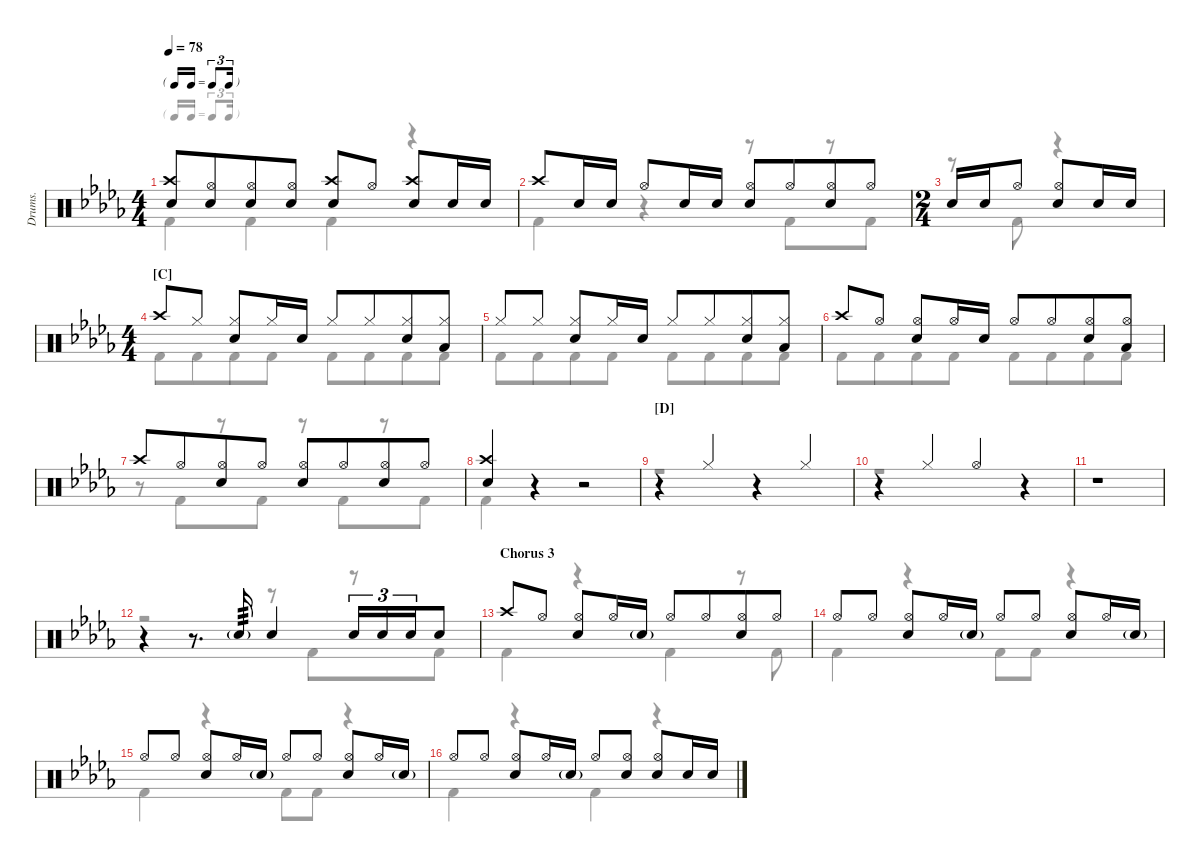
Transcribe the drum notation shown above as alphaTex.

\defaultSystemsLayout 4
\hideDynamics
\otherSystemsTrackNameOrientation horizontal
\track ("Drumkit" "Drums.") {defaultSystemsLayout 4 instrument percussion}
\staff {score}
\articulation defaults
\voice
\ts (4 4)
\tf triplet16th
\tempo 78
\clef neutral
\ks db
("Crash high (hit)"{acc forcenatural} "Snare (hit) 2"{acc forcenatural}).8{dy mf beam Up} ("Hi-Hat (open)"{acc forcenatural} "Snare (hit) 2"{acc forcenatural}).8{beam Up beam merge} ("Hi-Hat (open)"{acc forcenatural} "Snare (hit) 2"{acc forcenatural}).8{beam Up} ("Hi-Hat (open)"{acc forcenatural} "Snare (hit) 2"{acc forcenatural}).8{beam Up} ("Snare (hit) 2"{acc forcenatural} "Crash high (hit)"{acc forcenatural}).8{beam Up} "Hi-Hat (open)"{acc forcenatural}.8{beam Up} ("Snare (hit) 2"{acc forcenatural} "Crash high (hit)"{acc forcenatural}).8{beam Up} "Snare (hit) 2"{acc forcenatural}.16{beam Up} "Snare (hit) 2"{acc forcenatural}.16{beam Up} |
"Crash high (hit)"{acc forcenatural}.8{beam Up} "Snare (hit) 2"{acc forcenatural}.16{beam Up} "Snare (hit) 2"{acc forcenatural}.16{beam Up} "Hi-Hat (open)"{acc forcenatural}.8{beam Up} "Snare (hit) 2"{acc forcenatural}.16{beam Up} "Snare (hit) 2"{acc forcenatural}.16{beam Up} ("Hi-Hat (open)"{acc forcenatural} "Snare (hit) 2"{acc forcenatural}).8{beam Up} "Hi-Hat (open)"{acc forcenatural}.8{beam Up beam merge} ("Hi-Hat (open)"{acc forcenatural} "Snare (hit) 2"{acc forcenatural}).8{beam Up} "Hi-Hat (open)"{acc forcenatural}.8{beam Up} |
\ts (2 4)
"Snare (hit) 2"{acc forcenatural}.16{beam Up} "Snare (hit) 2"{acc forcenatural}.16{beam Up} "Hi-Hat (open)"{acc forcenatural}.8{beam Up} ("Hi-Hat (open)"{acc forcenatural} "Snare (hit) 2"{acc forcenatural}).8{beam Up} "Snare (hit) 2"{acc forcenatural}.16{beam Up} "Snare (hit) 2"{acc forcenatural}.16{beam Up} |
\ts (4 4)
\section ("C" "")
"Crash high (hit)"{acc forcenatural}.8{beam Up} "Hi-Hat (closed)"{acc forcenatural}.8{beam Up} ("Hi-Hat (closed)"{acc forcenatural} "Snare (hit) 2"{acc forcenatural}).8{beam Up} "Hi-Hat (closed)"{acc forcenatural}.16{beam Up} "Snare (hit) 2"{acc forcenatural}.16{beam Up} "Hi-Hat (closed)"{acc forcenatural}.8{beam Up beam merge} "Hi-Hat (closed)"{acc forcenatural}.8{beam Up beam merge} ("Hi-Hat (closed)"{acc forcenatural} "Snare (hit) 2"{acc forcenatural}).8{beam Up beam merge} ("Hi-Hat (closed)"{acc forcenatural} "Low Tom (hit)"{acc forcenatural}).8{beam Up} |
"Hi-Hat (closed)"{acc forcenatural}.8{beam Up} "Hi-Hat (closed)"{acc forcenatural}.8{beam Up} ("Hi-Hat (closed)"{acc forcenatural} "Snare (hit) 2"{acc forcenatural}).8{beam Up} "Hi-Hat (closed)"{acc forcenatural}.16{beam Up} "Snare (hit) 2"{acc forcenatural}.16{beam Up} "Hi-Hat (closed)"{acc forcenatural}.8{beam Up beam merge} "Hi-Hat (closed)"{acc forcenatural}.8{beam Up beam merge} ("Hi-Hat (closed)"{acc forcenatural} "Snare (hit) 2"{acc forcenatural}).8{beam Up beam merge} ("Hi-Hat (closed)"{acc forcenatural} "Low Tom (hit)"{acc forcenatural}).8{beam Up} |
"Crash high (hit)"{acc forcenatural}.8{beam Up} "Hi-Hat (open)"{acc forcenatural}.8{beam Up} ("Hi-Hat (open)"{acc forcenatural} "Snare (hit) 2"{acc forcenatural}).8{beam Up} "Hi-Hat (open)"{acc forcenatural}.16{beam Up} "Snare (hit) 2"{acc forcenatural}.16{beam Up} "Hi-Hat (open)"{acc forcenatural}.8{beam Up beam merge} "Hi-Hat (open)"{acc forcenatural}.8{beam Up beam merge} ("Hi-Hat (open)"{acc forcenatural} "Snare (hit) 2"{acc forcenatural}).8{beam Up beam merge} ("Hi-Hat (open)"{acc forcenatural} "Low Tom (hit)"{acc forcenatural}).8{beam Up} |
"Crash high (hit)"{acc forcenatural}.8{beam Up} "Hi-Hat (open)"{acc forcenatural}.8{beam Up beam merge} ("Hi-Hat (open)"{acc forcenatural} "Snare (hit) 2"{acc forcenatural}).8{beam Up} "Hi-Hat (open)"{acc forcenatural}.8{beam Up} ("Hi-Hat (open)"{acc forcenatural} "Snare (hit) 2"{acc forcenatural}).8{beam Up} "Hi-Hat (open)"{acc forcenatural}.8{beam Up beam merge} ("Hi-Hat (open)"{acc forcenatural} "Snare (hit) 2"{acc forcenatural}).8{beam Up} "Hi-Hat (open)"{acc forcenatural}.8{beam Up} |
("Crash high (hit)"{acc forcenatural} "Snare (hit) 2"{acc forcenatural}).4{beam Up} r.4{beam Up} r.2{beam Up} |
\section ("D" "")
r.4{beam Up} "Hi-Hat (closed)"{acc forcenatural}.4{beam Up} r.4{beam Up} "Hi-Hat (closed)"{acc forcenatural}.4{beam Up} |
r.4{beam Up} "Hi-Hat (closed)"{acc forcenatural}.4{beam Up} "Hi-Hat (open)"{acc forcenatural}.4{beam Up} r.4{beam Up} |
r.1{beam Down} |
r.4{beam Up} r.8{d beam Up} "Snare (hit) 2"{g acc forcenatural}.16{tp 3 beam Up} "Snare (hit) 2"{acc forcenatural}.4{beam Up} "Snare (hit) 2"{acc forcenatural}.16{tu (3 2) beam Up} "Snare (hit) 2"{acc forcenatural}.16{tu (3 2) beam Up} "Snare (hit) 2"{acc forcenatural}.16{tu (3 2) beam Up beam merge} "Snare (hit) 2"{acc forcenatural}.8{beam Up} |
\section ("" "Chorus 3")
"Crash high (hit)"{acc forcenatural}.8{beam Up} "Hi-Hat (open)"{acc forcenatural}.8{beam Up} ("Hi-Hat (open)"{acc forcenatural} "Snare (hit) 2"{acc forcenatural}).8{beam Up} "Hi-Hat (open)"{acc forcenatural}.16{beam Up} "Snare (hit) 2"{g acc forcenatural}.16{beam Up} "Hi-Hat (open)"{acc forcenatural}.8{beam Up beam merge} "Hi-Hat (open)"{acc forcenatural}.8{beam Up beam merge} ("Hi-Hat (open)"{acc forcenatural} "Snare (hit) 2"{acc forcenatural}).8{beam Up beam merge} "Hi-Hat (open)"{acc forcenatural}.8{beam Up} |
"Hi-Hat (open)"{acc forcenatural}.8{beam Up} "Hi-Hat (open)"{acc forcenatural}.8{beam Up} ("Hi-Hat (open)"{acc forcenatural} "Snare (hit) 2"{acc forcenatural}).8{beam Up} "Hi-Hat (open)"{acc forcenatural}.16{beam Up} "Snare (hit) 2"{g acc forcenatural}.16{beam Up} "Hi-Hat (open)"{acc forcenatural}.8{beam Up beam merge} "Hi-Hat (open)"{acc forcenatural}.8{beam Up beam split} ("Hi-Hat (open)"{acc forcenatural} "Snare (hit) 2"{acc forcenatural}).8{beam Up} "Hi-Hat (open)"{acc forcenatural}.16{beam Up} "Snare (hit) 2"{g acc forcenatural}.16{beam Up} |
"Hi-Hat (open)"{acc forcenatural}.8{beam Up} "Hi-Hat (open)"{acc forcenatural}.8{beam Up} ("Hi-Hat (open)"{acc forcenatural} "Snare (hit) 2"{acc forcenatural}).8{beam Up} "Hi-Hat (open)"{acc forcenatural}.16{beam Up} "Snare (hit) 2"{g acc forcenatural}.16{beam Up} "Hi-Hat (open)"{acc forcenatural}.8{beam Up beam merge} "Hi-Hat (open)"{acc forcenatural}.8{beam Up beam split} ("Hi-Hat (open)"{acc forcenatural} "Snare (hit) 2"{acc forcenatural}).8{beam Up} "Hi-Hat (open)"{acc forcenatural}.16{beam Up} "Snare (hit) 2"{g acc forcenatural}.16{beam Up} |
"Hi-Hat (open)"{acc forcenatural}.8{beam Up} "Hi-Hat (open)"{acc forcenatural}.8{beam Up} ("Hi-Hat (open)"{acc forcenatural} "Snare (hit) 2"{acc forcenatural}).8{beam Up} "Hi-Hat (open)"{acc forcenatural}.16{beam Up} "Snare (hit) 2"{g acc forcenatural}.16{beam Up} "Hi-Hat (open)"{acc forcenatural}.8{beam Up beam merge} ("Hi-Hat (open)"{acc forcenatural} "Snare (hit) 2"{acc forcenatural}).8{beam Up beam split} ("Hi-Hat (open)"{acc forcenatural} "Snare (hit) 2"{acc forcenatural}).8{beam Up} "Snare (hit) 2"{acc forcenatural}.16{beam Up} "Snare (hit) 2"{acc forcenatural}.16{beam Up}
\voice
\clef neutral
\ottava regular
\simile none
\ks db "Kick (hit) 2"{acc forcenatural}.4{dy mf beam Down} "Kick (hit) 2"{acc forcenatural}.4{beam Down} "Kick (hit) 2"{acc forcenatural}.4{beam Down}
r.4{beam Down} |
"Kick (hit) 2"{acc forcenatural}.4{beam Down} r.4{beam Down} r.8{beam Down} "Kick (hit) 2"{acc forcenatural}.8{beam Down beam merge} r.8{beam Down beam merge} "Kick (hit) 2"{acc forcenatural}.8{beam Down} |
r.8{beam Down} "Kick (hit) 2"{acc forcenatural}.8{beam Down} r.4{beam Down} |
"Kick (hit) 2"{acc forcenatural}.8{beam Down beam merge} "Kick (hit) 2"{acc forcenatural}.8{beam Down beam merge} "Kick (hit) 2"{acc forcenatural}.8{beam Down beam merge} "Kick (hit) 2"{acc forcenatural}.8{beam Down} "Kick (hit) 2"{acc forcenatural}.8{beam Down beam merge} "Kick (hit) 2"{acc forcenatural}.8{beam Down beam merge} "Kick (hit) 2"{acc forcenatural}.8{beam Down beam merge} "Kick (hit) 2"{acc forcenatural}.8{beam Down} |
"Kick (hit) 2"{acc forcenatural}.8{beam Down beam merge} "Kick (hit) 2"{acc forcenatural}.8{beam Down beam merge} "Kick (hit) 2"{acc forcenatural}.8{beam Down beam merge} "Kick (hit) 2"{acc forcenatural}.8{beam Down} "Kick (hit) 2"{acc forcenatural}.8{beam Down beam merge} "Kick (hit) 2"{acc forcenatural}.8{beam Down beam merge} "Kick (hit) 2"{acc forcenatural}.8{beam Down beam merge} "Kick (hit) 2"{acc forcenatural}.8{beam Down} |
"Kick (hit) 2"{acc forcenatural}.8{beam Down beam merge} "Kick (hit) 2"{acc forcenatural}.8{beam Down beam merge} "Kick (hit) 2"{acc forcenatural}.8{beam Down beam merge} "Kick (hit) 2"{acc forcenatural}.8{beam Down} "Kick (hit) 2"{acc forcenatural}.8{beam Down beam merge} "Kick (hit) 2"{acc forcenatural}.8{beam Down beam merge} "Kick (hit) 2"{acc forcenatural}.8{beam Down beam merge} "Kick (hit) 2"{acc forcenatural}.8{beam Down} |
r.8{beam Down} "Kick (hit) 2"{acc forcenatural}.8{beam Down beam merge} r.8{beam Down beam merge} "Kick (hit) 2"{acc forcenatural}.8{beam Down} r.8{beam Down} "Kick (hit) 2"{acc forcenatural}.8{beam Down beam merge} r.8{beam Down beam merge} "Kick (hit) 2"{acc forcenatural}.8{beam Down} |
"Kick (hit) 2"{acc forcenatural}.4{beam Down} r.4{beam Down} r.2{beam Down} |
r.1{beam Down} |
r.1{beam Down} |
|
r.2{beam Down} r.8{beam Down} "Kick (hit) 2"{acc forcenatural}.8{beam Down beam merge} r.8{beam Down beam merge} "Kick (hit) 2"{acc forcenatural}.8{beam Down} |
"Kick (hit) 2"{acc forcenatural}.4{beam Down} r.4{beam Down} "Kick (hit) 2"{acc forcenatural}.4{beam Down} r.8{beam Down} "Kick (hit) 2"{acc forcenatural}.8{beam Down} |
"Kick (hit) 2"{acc forcenatural}.4{beam Down} r.4{beam Down} "Kick (hit) 2"{acc forcenatural}.8{beam Down} "Kick (hit) 2"{acc forcenatural}.8{beam Down} r.4{beam Down} |
"Kick (hit) 2"{acc forcenatural}.4{beam Down} r.4{beam Down} "Kick (hit) 2"{acc forcenatural}.8{beam Down} "Kick (hit) 2"{acc forcenatural}.8{beam Down} r.4{beam Down} |
"Kick (hit) 2"{acc forcenatural}.4{beam Down} r.4{beam Down} "Kick (hit) 2"{acc forcenatural}.4{beam Down} r.4{beam Down}
